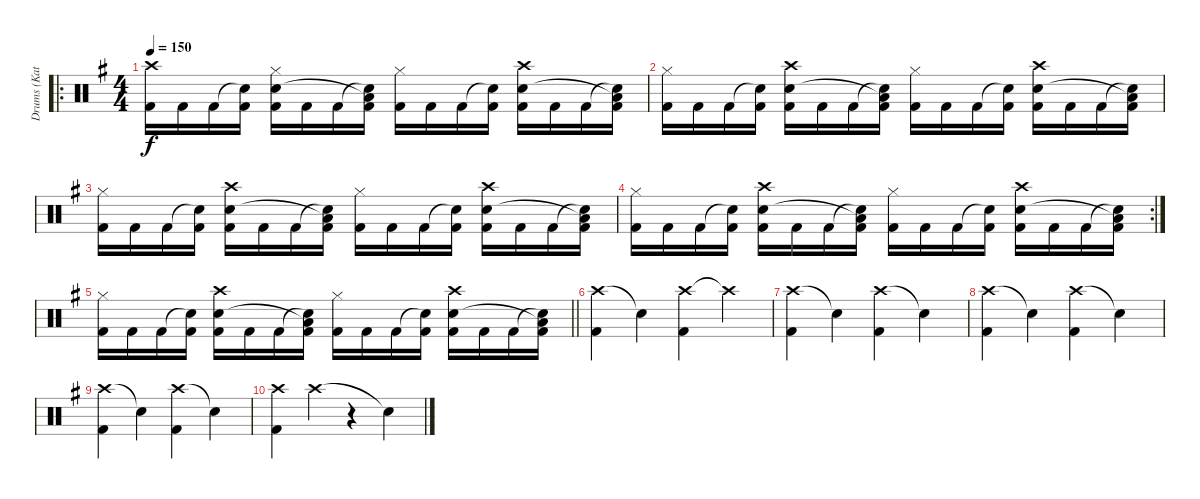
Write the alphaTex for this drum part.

\track ("Drums (Katsuji)" "Drums (Kat") {instrument percussion}
\staff {score}
\articulation defaults
\ro
\ts (4 4)
\tempo 150
\clef neutral
\ks g
("Crash high (hit)" "Kick (hit) 2").16{dy f} "Kick (hit) 2".16 "Kick (hit) 2".16 ("Snare (hit)"{t} "Kick (hit) 2").16 ("Hi-Hat (closed)" "Snare (hit) 2" "Kick (hit) 2").16 "Kick (hit) 2".16 "Kick (hit) 2".16 ("Snare (hit)"{t} "Low Floor Tom (hit)"{t} "Kick (hit) 2").16 ("Hi-Hat (closed)" "Kick (hit) 2").16 "Kick (hit) 2".16 "Kick (hit) 2".16 ("Snare (hit)"{t} "Kick (hit) 2").16 ("Crash high (hit)" "Snare (hit) 2" "Kick (hit) 2").16 "Kick (hit) 2".16 "Kick (hit) 2".16 ("Snare (hit)"{t} "Low Floor Tom (hit)"{t} "Kick (hit) 2").16 |
("Hi-Hat (closed)" "Kick (hit) 2").16 "Kick (hit) 2".16 "Kick (hit) 2".16 ("Snare (hit)"{t} "Kick (hit) 2").16 ("Crash high (hit)" "Snare (hit) 2" "Kick (hit) 2").16 "Kick (hit) 2".16 "Kick (hit) 2".16 ("Snare (hit)"{t} "Low Floor Tom (hit)"{t} "Kick (hit) 2").16 ("Hi-Hat (closed)" "Kick (hit) 2").16 "Kick (hit) 2".16 "Kick (hit) 2".16 ("Snare (hit)"{t} "Kick (hit) 2").16 ("Crash high (hit)" "Snare (hit) 2" "Kick (hit) 2").16 "Kick (hit) 2".16 "Kick (hit) 2".16 ("Snare (hit)"{t} "Low Floor Tom (hit)"{t} "Kick (hit) 2").16 |
("Hi-Hat (closed)" "Kick (hit) 2").16 "Kick (hit) 2".16 "Kick (hit) 2".16 ("Snare (hit)"{t} "Kick (hit) 2").16 ("Crash high (hit)" "Snare (hit) 2" "Kick (hit) 2").16 "Kick (hit) 2".16 "Kick (hit) 2".16 ("Snare (hit)"{t} "Low Floor Tom (hit)"{t} "Kick (hit) 2").16 ("Hi-Hat (closed)" "Kick (hit) 2").16 "Kick (hit) 2".16 "Kick (hit) 2".16 ("Snare (hit)"{t} "Kick (hit) 2").16 ("Crash high (hit)" "Snare (hit) 2" "Kick (hit) 2").16 "Kick (hit) 2".16 "Kick (hit) 2".16 ("Snare (hit)"{t} "Low Floor Tom (hit)"{t} "Kick (hit) 2").16 |
\rc 2
("Hi-Hat (closed)" "Kick (hit) 2").16 "Kick (hit) 2".16 "Kick (hit) 2".16 ("Snare (hit)"{t} "Kick (hit) 2").16 ("Crash high (hit)" "Snare (hit) 2" "Kick (hit) 2").16 "Kick (hit) 2".16 "Kick (hit) 2".16 ("Snare (hit)"{t} "Low Floor Tom (hit)"{t} "Kick (hit) 2").16 ("Hi-Hat (closed)" "Kick (hit) 2").16 "Kick (hit) 2".16 "Kick (hit) 2".16 ("Snare (hit)"{t} "Kick (hit) 2").16 ("Crash high (hit)" "Snare (hit) 2" "Kick (hit) 2").16 "Kick (hit) 2".16 "Kick (hit) 2".16 ("Snare (hit)"{t} "Low Floor Tom (hit)"{t} "Kick (hit) 2").16 |
\barLineRight lightlight
("Hi-Hat (closed)" "Kick (hit) 2").16 "Kick (hit) 2".16 "Kick (hit) 2".16 ("Snare (hit)"{t} "Kick (hit) 2").16 ("Crash high (hit)" "Snare (hit) 2" "Kick (hit) 2").16 "Kick (hit) 2".16 "Kick (hit) 2".16 ("Snare (hit)"{t} "Low Floor Tom (hit)"{t} "Kick (hit) 2").16 ("Hi-Hat (closed)" "Kick (hit) 2").16 "Kick (hit) 2".16 "Kick (hit) 2".16 ("Snare (hit)"{t} "Kick (hit) 2").16 ("Crash high (hit)" "Snare (hit) 2" "Kick (hit) 2").16 "Kick (hit) 2".16 "Kick (hit) 2".16 ("Snare (hit)"{t} "Low Floor Tom (hit)"{t} "Kick (hit) 2").16 |
("Crash high (hit)" "Kick (hit) 2").4 "Snare (hit)"{t}.4 ("Crash high (hit)" "Kick (hit) 2").4 "Crash high (hit)"{t}.4 |
("Crash high (hit)" "Kick (hit) 2").4 "Snare (hit)"{t}.4 ("Crash high (hit)" "Kick (hit) 2").4 "Snare (hit)"{t}.4 |
("Crash high (hit)" "Kick (hit) 2").4 "Snare (hit)"{t}.4 ("Crash high (hit)" "Kick (hit) 2").4 "Snare (hit)"{t}.4 |
("Crash high (hit)" "Kick (hit) 2").4 "Snare (hit)"{t}.4 ("Crash high (hit)" "Kick (hit) 2").4 "Snare (hit)"{t}.4 |
("Crash high (hit)" "Kick (hit) 2").4 "Crash high (hit)".4 r.4 "Snare (hit)"{t}.4
